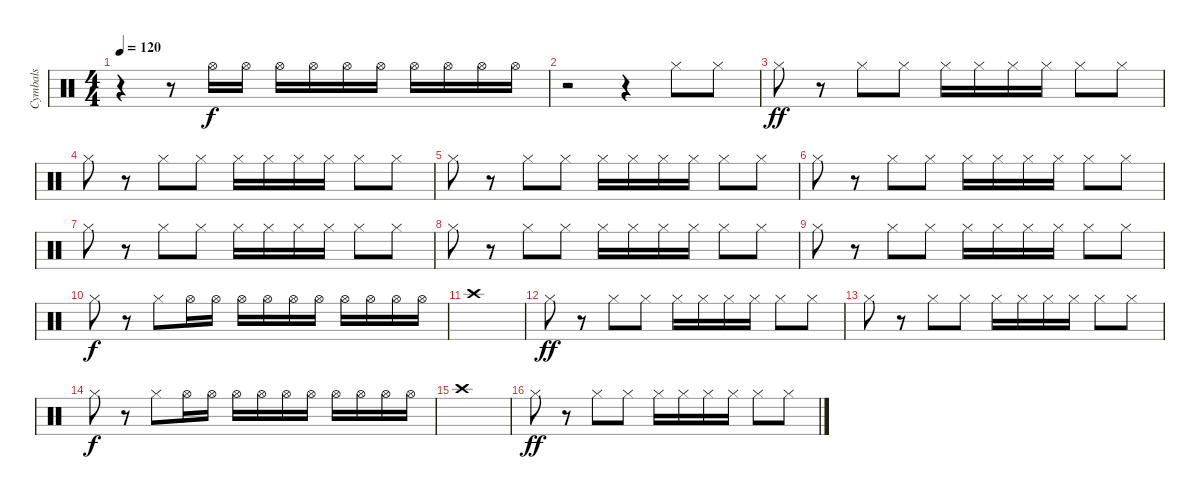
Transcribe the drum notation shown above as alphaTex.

\track ("Cymbals" "Cymbals") {instrument percussion}
\staff {score}
\articulation defaults
\ts (4 4)
\tempo 120
\clef neutral
\ks c
r.4{dy f} r.8 "Hi-Hat (open)".16 "Hi-Hat (open)".16 "Hi-Hat (open)".16 "Hi-Hat (open)".16 "Hi-Hat (open)".16 "Hi-Hat (open)".16 "Hi-Hat (open)".16 "Hi-Hat (open)".16 "Hi-Hat (open)".16 "Hi-Hat (open)".16 |
r.2 r.4 "Hi-Hat (closed)".8 "Hi-Hat (closed)".8 |
"Hi-Hat (closed)".8{dy ff} r.8 "Hi-Hat (closed)".8 "Hi-Hat (closed)".8 "Hi-Hat (closed)".16 "Hi-Hat (closed)".16 "Hi-Hat (closed)".16 "Hi-Hat (closed)".16 "Hi-Hat (closed)".8 "Hi-Hat (closed)".8 |
"Hi-Hat (closed)".8 r.8 "Hi-Hat (closed)".8 "Hi-Hat (closed)".8 "Hi-Hat (closed)".16 "Hi-Hat (closed)".16 "Hi-Hat (closed)".16 "Hi-Hat (closed)".16 "Hi-Hat (closed)".8 "Hi-Hat (closed)".8 |
"Hi-Hat (closed)".8 r.8 "Hi-Hat (closed)".8 "Hi-Hat (closed)".8 "Hi-Hat (closed)".16 "Hi-Hat (closed)".16 "Hi-Hat (closed)".16 "Hi-Hat (closed)".16 "Hi-Hat (closed)".8 "Hi-Hat (closed)".8 |
"Hi-Hat (closed)".8 r.8 "Hi-Hat (closed)".8 "Hi-Hat (closed)".8 "Hi-Hat (closed)".16 "Hi-Hat (closed)".16 "Hi-Hat (closed)".16 "Hi-Hat (closed)".16 "Hi-Hat (closed)".8 "Hi-Hat (closed)".8 |
"Hi-Hat (closed)".8 r.8 "Hi-Hat (closed)".8 "Hi-Hat (closed)".8 "Hi-Hat (closed)".16 "Hi-Hat (closed)".16 "Hi-Hat (closed)".16 "Hi-Hat (closed)".16 "Hi-Hat (closed)".8 "Hi-Hat (closed)".8 |
"Hi-Hat (closed)".8 r.8 "Hi-Hat (closed)".8 "Hi-Hat (closed)".8 "Hi-Hat (closed)".16 "Hi-Hat (closed)".16 "Hi-Hat (closed)".16 "Hi-Hat (closed)".16 "Hi-Hat (closed)".8 "Hi-Hat (closed)".8 |
"Hi-Hat (closed)".8 r.8 "Hi-Hat (closed)".8 "Hi-Hat (closed)".8 "Hi-Hat (closed)".16 "Hi-Hat (closed)".16 "Hi-Hat (closed)".16 "Hi-Hat (closed)".16 "Hi-Hat (closed)".8 "Hi-Hat (closed)".8 |
"Hi-Hat (closed)".8{dy f} r.8 "Hi-Hat (closed)".8 "Hi-Hat (open)".16 "Hi-Hat (open)".16 "Hi-Hat (open)".16 "Hi-Hat (open)".16 "Hi-Hat (open)".16 "Hi-Hat (open)".16 "Hi-Hat (open)".16 "Hi-Hat (open)".16 "Hi-Hat (open)".16 "Hi-Hat (open)".16 |
"Crash high (hit)".1 |
"Hi-Hat (closed)".8{dy ff} r.8 "Hi-Hat (closed)".8 "Hi-Hat (closed)".8 "Hi-Hat (closed)".16 "Hi-Hat (closed)".16 "Hi-Hat (closed)".16 "Hi-Hat (closed)".16 "Hi-Hat (closed)".8 "Hi-Hat (closed)".8 |
"Hi-Hat (closed)".8 r.8 "Hi-Hat (closed)".8 "Hi-Hat (closed)".8 "Hi-Hat (closed)".16 "Hi-Hat (closed)".16 "Hi-Hat (closed)".16 "Hi-Hat (closed)".16 "Hi-Hat (closed)".8 "Hi-Hat (closed)".8 |
"Hi-Hat (closed)".8{dy f} r.8 "Hi-Hat (closed)".8 "Hi-Hat (open)".16 "Hi-Hat (open)".16 "Hi-Hat (open)".16 "Hi-Hat (open)".16 "Hi-Hat (open)".16 "Hi-Hat (open)".16 "Hi-Hat (open)".16 "Hi-Hat (open)".16 "Hi-Hat (open)".16 "Hi-Hat (open)".16 |
"Crash high (hit)".1 |
"Hi-Hat (closed)".8{dy ff} r.8 "Hi-Hat (closed)".8 "Hi-Hat (closed)".8 "Hi-Hat (closed)".16 "Hi-Hat (closed)".16 "Hi-Hat (closed)".16 "Hi-Hat (closed)".16 "Hi-Hat (closed)".8 "Hi-Hat (closed)".8
